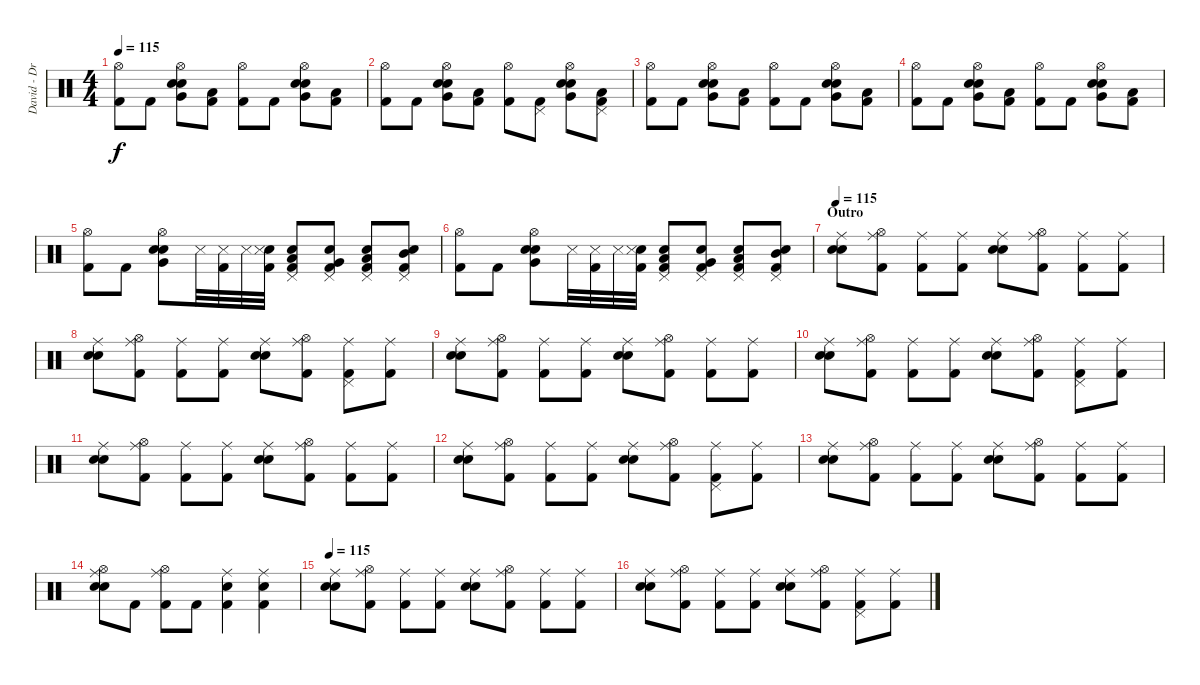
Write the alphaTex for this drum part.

\track ("David - Drums" "David - Dr") {instrument percussion}
\staff {score}
\articulation defaults
\ts (4 4)
\tempo 115
\clef neutral
\ks c
("Hi-Hat (open)" "Kick (hit) 2").8{dy f} "Kick (hit) 2".8 ("Hi-Hat (open)" "Very Low Tom (hit)" "Electric Snare (hit)" "Snare (hit) 2").8 ("Low Floor Tom (hit)" "Kick (hit) 2").8 ("Hi-Hat (open)" "Kick (hit) 2").8 "Kick (hit) 2".8 ("Hi-Hat (open)" "Very Low Tom (hit)" "Electric Snare (hit)" "Snare (hit) 2").8 ("Low Floor Tom (hit)" "Kick (hit) 2").8 |
("Hi-Hat (open)" "Kick (hit) 2").8 "Kick (hit) 2".8 ("Hi-Hat (open)" "Very Low Tom (hit)" "Electric Snare (hit)" "Snare (hit) 2").8 ("Low Floor Tom (hit)" "Kick (hit) 2").8 ("Hi-Hat (open)" "Kick (hit) 2").8 ("Pedal Hi-Hat (hit)" "Kick (hit) 2").8 ("Hi-Hat (open)" "Very Low Tom (hit)" "Electric Snare (hit)" "Snare (hit) 2").8 ("Pedal Hi-Hat (hit)" "Low Floor Tom (hit)" "Kick (hit) 2").8 |
("Hi-Hat (open)" "Kick (hit) 2").8 "Kick (hit) 2".8 ("Hi-Hat (open)" "Very Low Tom (hit)" "Electric Snare (hit)" "Snare (hit) 2").8 ("Low Floor Tom (hit)" "Kick (hit) 2").8 ("Hi-Hat (open)" "Kick (hit) 2").8 "Kick (hit) 2".8 ("Hi-Hat (open)" "Very Low Tom (hit)" "Electric Snare (hit)" "Snare (hit) 2").8 ("Low Floor Tom (hit)" "Kick (hit) 2").8 |
("Hi-Hat (open)" "Kick (hit) 2").8 "Kick (hit) 2".8 ("Hi-Hat (open)" "Very Low Tom (hit)" "Electric Snare (hit)" "Snare (hit) 2").8 ("Low Floor Tom (hit)" "Kick (hit) 2").8 ("Hi-Hat (open)" "Kick (hit) 2").8 "Kick (hit) 2".8 ("Hi-Hat (open)" "Very Low Tom (hit)" "Electric Snare (hit)" "Snare (hit) 2").8 ("Low Floor Tom (hit)" "Kick (hit) 2").8 |
("Hi-Hat (open)" "Kick (hit) 2").8 "Kick (hit) 2".8 ("Hi-Hat (open)" "Very Low Tom (hit)" "Electric Snare (hit)" "Snare (hit) 2").8 "Snare (side stick) 3".32 ("Snare (side stick) 3" "Kick (hit) 2").32 "Snare (side stick) 3".32 ("Electric Snare (hit)" "Snare (side stick) 3" "Kick (hit) 2").32 ("Pedal Hi-Hat (hit)" "Low Floor Tom (hit)" "Electric Snare (hit)" "Kick (hit) 2").8 ("Pedal Hi-Hat (hit)" "Very Low Tom (hit)" "Electric Snare (hit)" "Kick (hit) 2").8 ("Pedal Hi-Hat (hit)" "Low Tom (hit)" "Electric Snare (hit)" "Kick (hit) 2").8 ("Pedal Hi-Hat (hit)" "Mid Tom (hit)" "Electric Snare (hit)" "Kick (hit) 2").8 |
("Hi-Hat (open)" "Kick (hit) 2").8 "Kick (hit) 2".8 ("Hi-Hat (open)" "Very Low Tom (hit)" "Electric Snare (hit)" "Snare (hit) 2").8 "Snare (side stick) 3".32 ("Snare (side stick) 3" "Kick (hit) 2").32 "Snare (side stick) 3".32 ("Electric Snare (hit)" "Snare (side stick) 3" "Kick (hit) 2").32 ("Pedal Hi-Hat (hit)" "Low Floor Tom (hit)" "Electric Snare (hit)" "Kick (hit) 2").8 ("Pedal Hi-Hat (hit)" "Very Low Tom (hit)" "Electric Snare (hit)" "Kick (hit) 2").8 ("Pedal Hi-Hat (hit)" "Low Tom (hit)" "Electric Snare (hit)" "Kick (hit) 2").8 ("Pedal Hi-Hat (hit)" "Mid Tom (hit)" "Electric Snare (hit)" "Kick (hit) 2").8 |
\section ("" "Outro")
\tempo 115
("Ride (middle)" "Electric Snare (hit)" "Snare (hit) 2").8 ("Ride (middle)" "Hi-Hat (open)" "Kick (hit) 2").8 ("Ride (middle)" "Kick (hit) 2").8 ("Ride (middle)" "Kick (hit) 2").8 ("Ride (middle)" "Electric Snare (hit)" "Snare (hit) 2").8 ("Ride (middle)" "Hi-Hat (open)" "Kick (hit) 2").8 ("Ride (middle)" "Kick (hit) 2").8 ("Ride (middle)" "Kick (hit) 2").8 |
("Ride (middle)" "Electric Snare (hit)" "Snare (hit) 2").8 ("Ride (middle)" "Hi-Hat (open)" "Kick (hit) 2").8 ("Ride (middle)" "Kick (hit) 2").8 ("Ride (middle)" "Kick (hit) 2").8 ("Ride (middle)" "Electric Snare (hit)" "Snare (hit) 2").8 ("Ride (middle)" "Hi-Hat (open)" "Kick (hit) 2").8 ("Ride (middle)" "Pedal Hi-Hat (hit)" "Kick (hit) 2").8 ("Ride (middle)" "Kick (hit) 2").8 |
("Ride (middle)" "Electric Snare (hit)" "Snare (hit) 2").8 ("Ride (middle)" "Hi-Hat (open)" "Kick (hit) 2").8 ("Ride (middle)" "Kick (hit) 2").8 ("Ride (middle)" "Kick (hit) 2").8 ("Ride (middle)" "Electric Snare (hit)" "Snare (hit) 2").8 ("Ride (middle)" "Hi-Hat (open)" "Kick (hit) 2").8 ("Ride (middle)" "Kick (hit) 2").8 ("Ride (middle)" "Kick (hit) 2").8 |
("Ride (middle)" "Electric Snare (hit)" "Snare (hit) 2").8 ("Ride (middle)" "Hi-Hat (open)" "Kick (hit) 2").8 ("Ride (middle)" "Kick (hit) 2").8 ("Ride (middle)" "Kick (hit) 2").8 ("Ride (middle)" "Electric Snare (hit)" "Snare (hit) 2").8 ("Ride (middle)" "Hi-Hat (open)" "Kick (hit) 2").8 ("Ride (middle)" "Pedal Hi-Hat (hit)" "Kick (hit) 2").8 ("Ride (middle)" "Kick (hit) 2").8 |
("Ride (middle)" "Electric Snare (hit)" "Snare (hit) 2").8 ("Ride (middle)" "Hi-Hat (open)" "Kick (hit) 2").8 ("Ride (middle)" "Kick (hit) 2").8 ("Ride (middle)" "Kick (hit) 2").8 ("Ride (middle)" "Electric Snare (hit)" "Snare (hit) 2").8 ("Ride (middle)" "Hi-Hat (open)" "Kick (hit) 2").8 ("Ride (middle)" "Kick (hit) 2").8 ("Ride (middle)" "Kick (hit) 2").8 |
("Ride (middle)" "Electric Snare (hit)" "Snare (hit) 2").8 ("Ride (middle)" "Hi-Hat (open)" "Kick (hit) 2").8 ("Ride (middle)" "Kick (hit) 2").8 ("Ride (middle)" "Kick (hit) 2").8 ("Ride (middle)" "Electric Snare (hit)" "Snare (hit) 2").8 ("Ride (middle)" "Hi-Hat (open)" "Kick (hit) 2").8 ("Ride (middle)" "Pedal Hi-Hat (hit)" "Kick (hit) 2").8 ("Ride (middle)" "Kick (hit) 2").8 |
("Ride (middle)" "Electric Snare (hit)" "Snare (hit) 2").8 ("Ride (middle)" "Hi-Hat (open)" "Kick (hit) 2").8 ("Ride (middle)" "Kick (hit) 2").8 ("Ride (middle)" "Kick (hit) 2").8 ("Ride (middle)" "Electric Snare (hit)" "Snare (hit) 2").8 ("Ride (middle)" "Hi-Hat (open)" "Kick (hit) 2").8 ("Ride (middle)" "Kick (hit) 2").8 ("Ride (middle)" "Kick (hit) 2").8 |
("Ride (middle)" "Hi-Hat (open)" "Electric Snare (hit)" "Snare (hit) 2").8 "Kick (hit) 2".8 ("Ride (middle)" "Hi-Hat (open)" "Kick (hit) 2").8 "Kick (hit) 2".8 ("Ride (middle)" "Electric Snare (hit)" "Kick (hit) 2").4{bd 120} ("Ride (middle)" "Electric Snare (hit)" "Kick (hit) 2").4 |
\tempo 115
("Ride (middle)" "Electric Snare (hit)" "Snare (hit) 2").8 ("Ride (middle)" "Hi-Hat (open)" "Kick (hit) 2").8 ("Ride (middle)" "Kick (hit) 2").8 ("Ride (middle)" "Kick (hit) 2").8 ("Ride (middle)" "Electric Snare (hit)" "Snare (hit) 2").8 ("Ride (middle)" "Hi-Hat (open)" "Kick (hit) 2").8 ("Ride (middle)" "Kick (hit) 2").8 ("Ride (middle)" "Kick (hit) 2").8 |
("Ride (middle)" "Electric Snare (hit)" "Snare (hit) 2").8 ("Ride (middle)" "Hi-Hat (open)" "Kick (hit) 2").8 ("Ride (middle)" "Kick (hit) 2").8 ("Ride (middle)" "Kick (hit) 2").8{volume 5} ("Ride (middle)" "Electric Snare (hit)" "Snare (hit) 2").8 ("Ride (middle)" "Hi-Hat (open)" "Kick (hit) 2").8 ("Ride (middle)" "Pedal Hi-Hat (hit)" "Kick (hit) 2").8 ("Ride (middle)" "Kick (hit) 2").8
